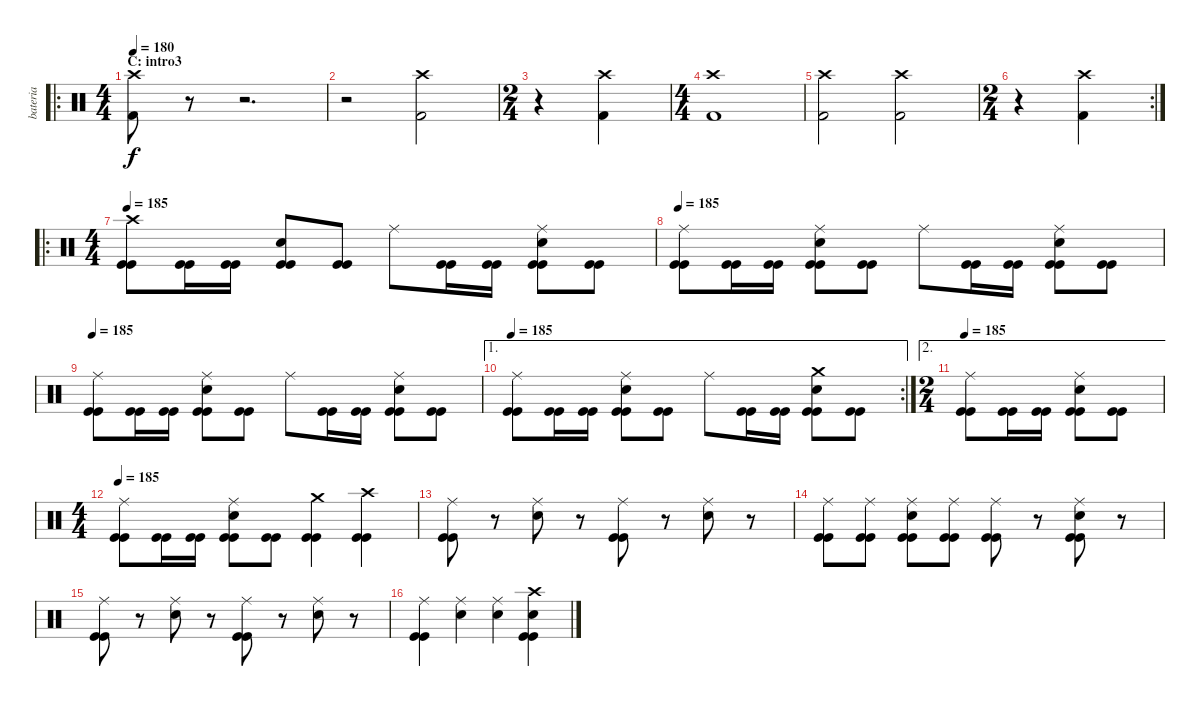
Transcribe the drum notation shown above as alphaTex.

\track ("bateria" "bateria") {instrument percussion}
\staff {score}
\articulation defaults
\ro
\ts (4 4)
\section ("" "C: intro3")
\tempo 180
\clef neutral
\ks c
("Crash high (hit)" "Kick (hit) 2").8{dy f volume 13} r.8 r.2{d} |
r.2 ("Crash high (hit)" "Kick (hit) 2").2 |
\ts (2 4)
r.4 ("Crash high (hit)" "Kick (hit) 2").4 |
\ts (4 4)
("Crash high (hit)" "Kick (hit) 2").1 |
("Crash high (hit)" "Kick (hit) 2").2 ("Crash high (hit)" "Kick (hit) 2").2 |
\rc 2
\ts (2 4)
r.4 ("Crash high (hit)" "Kick (hit) 2").4 |
\ro
\ts (4 4)
\tempo 185
("Crash high (hit)" "Kick (hit)" "Kick (hit)").8 ("Kick (hit)" "Kick (hit)").16 ("Kick (hit)" "Kick (hit)").16 ("Snare (hit) 2" "Kick (hit)" "Kick (hit)").8 ("Kick (hit)" "Kick (hit)").8 "Ride (middle)".8 ("Kick (hit)" "Kick (hit)").16 ("Kick (hit)" "Kick (hit)").16 ("Ride (middle)" "Snare (hit) 2" "Kick (hit)" "Kick (hit)").8 ("Kick (hit)" "Kick (hit)").8 |
\tempo 185
("Ride (middle)" "Kick (hit)" "Kick (hit)").8 ("Kick (hit)" "Kick (hit)").16 ("Kick (hit)" "Kick (hit)").16 ("Ride (middle)" "Snare (hit) 2" "Kick (hit)" "Kick (hit)").8 ("Kick (hit)" "Kick (hit)").8 "Ride (middle)".8 ("Kick (hit)" "Kick (hit)").16 ("Kick (hit)" "Kick (hit)").16 ("Ride (middle)" "Snare (hit) 2" "Kick (hit)" "Kick (hit)").8 ("Kick (hit)" "Kick (hit)").8 |
\tempo 185
("Ride (middle)" "Kick (hit)" "Kick (hit)").8 ("Kick (hit)" "Kick (hit)").16 ("Kick (hit)" "Kick (hit)").16 ("Ride (middle)" "Snare (hit) 2" "Kick (hit)" "Kick (hit)").8 ("Kick (hit)" "Kick (hit)").8 "Ride (middle)".8 ("Kick (hit)" "Kick (hit)").16 ("Kick (hit)" "Kick (hit)").16 ("Ride (middle)" "Snare (hit) 2" "Kick (hit)" "Kick (hit)").8 ("Kick (hit)" "Kick (hit)").8 |
\ae 1
\rc 2
\tempo 185
("Ride (middle)" "Kick (hit)" "Kick (hit)").8 ("Kick (hit)" "Kick (hit)").16 ("Kick (hit)" "Kick (hit)").16 ("Ride (middle)" "Snare (hit) 2" "Kick (hit)" "Kick (hit)").8 ("Kick (hit)" "Kick (hit)").8 "Ride (middle)".8 ("Kick (hit)" "Kick (hit)").16 ("Kick (hit)" "Kick (hit)").16 ("Crash medium (hit)" "Snare (hit) 2" "Kick (hit)" "Kick (hit)").8 ("Kick (hit)" "Kick (hit)").8 |
\ae 2
\ts (2 4)
\tempo 185
("Ride (middle)" "Kick (hit)" "Kick (hit)").8 ("Kick (hit)" "Kick (hit)").16 ("Kick (hit)" "Kick (hit)").16 ("Ride (middle)" "Snare (hit) 2" "Kick (hit)" "Kick (hit)").8 ("Kick (hit)" "Kick (hit)").8 |
\ts (4 4)
\tempo 185
("Ride (middle)" "Kick (hit)" "Kick (hit)").8 ("Kick (hit)" "Kick (hit)").16 ("Kick (hit)" "Kick (hit)").16 ("Ride (middle)" "Snare (hit) 2" "Kick (hit)" "Kick (hit)").8 ("Kick (hit)" "Kick (hit)").8 ("Crash medium (hit)" "Kick (hit)" "Kick (hit)").4 ("Crash high (hit)" "Kick (hit)" "Kick (hit)").4 |
("Ride (middle)" "Kick (hit)" "Kick (hit)").8 r.8 ("Ride (middle)" "Snare (hit) 2").8 r.8 ("Ride (middle)" "Kick (hit)" "Kick (hit)").8 r.8 ("Ride (middle)" "Snare (hit) 2").8 r.8 |
("Ride (middle)" "Kick (hit)" "Kick (hit)").8 ("Ride (middle)" "Kick (hit)" "Kick (hit)").8 ("Ride (middle)" "Snare (hit) 2" "Kick (hit)" "Kick (hit)").8 ("Ride (middle)" "Kick (hit)" "Kick (hit)").8 ("Ride (middle)" "Kick (hit)" "Kick (hit)").8 r.8 ("Ride (middle)" "Snare (hit) 2" "Kick (hit)" "Kick (hit)").8 r.8 |
("Ride (middle)" "Kick (hit)" "Kick (hit)").8 r.8 ("Ride (middle)" "Snare (hit) 2").8 r.8 ("Ride (middle)" "Kick (hit)" "Kick (hit)").8 r.8 ("Ride (middle)" "Snare (hit) 2").8 r.8 |
("Ride (middle)" "Kick (hit)" "Kick (hit)").4 ("Ride (middle)" "Snare (hit) 2").4 ("Ride (middle)" "Snare (hit) 2").4 ("Crash high (hit)" "Snare (hit) 2" "Kick (hit)" "Kick (hit)").4
